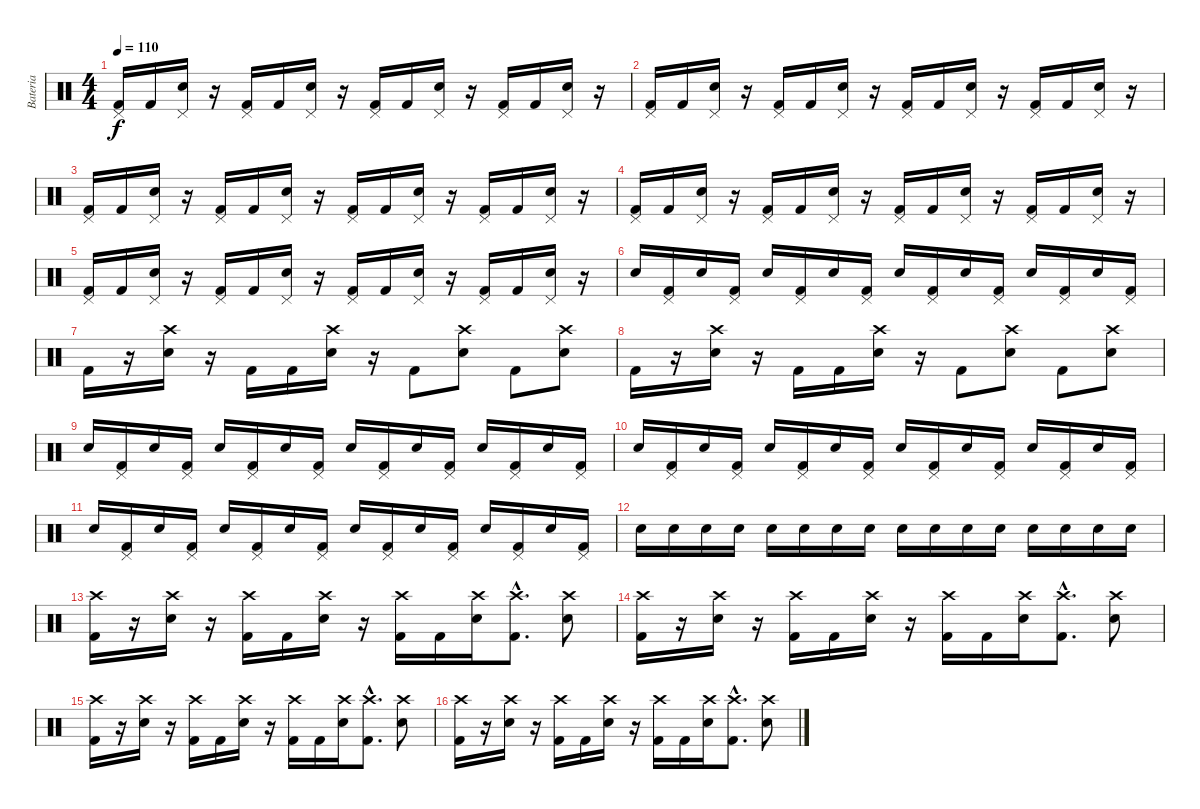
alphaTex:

\track ("Bateria" "Bateria") {instrument percussion}
\staff {score}
\articulation defaults
\ts (4 4)
\tempo 110
\clef neutral
\ks c
("Pedal Hi-Hat (hit)" "Kick (hit) 2").16{dy f} "Kick (hit) 2".16 ("Pedal Hi-Hat (hit)" "Electric Snare (hit)").16 r.16 ("Pedal Hi-Hat (hit)" "Kick (hit) 2").16 "Kick (hit) 2".16 ("Pedal Hi-Hat (hit)" "Electric Snare (hit)").16 r.16 ("Pedal Hi-Hat (hit)" "Kick (hit) 2").16 "Kick (hit) 2".16 ("Pedal Hi-Hat (hit)" "Electric Snare (hit)").16 r.16 ("Pedal Hi-Hat (hit)" "Kick (hit) 2").16 "Kick (hit) 2".16 ("Pedal Hi-Hat (hit)" "Electric Snare (hit)").16 r.16 |
("Pedal Hi-Hat (hit)" "Kick (hit) 2").16 "Kick (hit) 2".16 ("Pedal Hi-Hat (hit)" "Electric Snare (hit)").16 r.16 ("Pedal Hi-Hat (hit)" "Kick (hit) 2").16 "Kick (hit) 2".16 ("Pedal Hi-Hat (hit)" "Electric Snare (hit)").16 r.16 ("Pedal Hi-Hat (hit)" "Kick (hit) 2").16 "Kick (hit) 2".16 ("Pedal Hi-Hat (hit)" "Electric Snare (hit)").16 r.16 ("Pedal Hi-Hat (hit)" "Kick (hit) 2").16 "Kick (hit) 2".16 ("Pedal Hi-Hat (hit)" "Electric Snare (hit)").16 r.16 |
("Pedal Hi-Hat (hit)" "Kick (hit) 2").16 "Kick (hit) 2".16 ("Pedal Hi-Hat (hit)" "Electric Snare (hit)").16 r.16 ("Pedal Hi-Hat (hit)" "Kick (hit) 2").16 "Kick (hit) 2".16 ("Pedal Hi-Hat (hit)" "Electric Snare (hit)").16 r.16 ("Pedal Hi-Hat (hit)" "Kick (hit) 2").16 "Kick (hit) 2".16 ("Pedal Hi-Hat (hit)" "Electric Snare (hit)").16 r.16 ("Pedal Hi-Hat (hit)" "Kick (hit) 2").16 "Kick (hit) 2".16 ("Pedal Hi-Hat (hit)" "Electric Snare (hit)").16 r.16 |
("Pedal Hi-Hat (hit)" "Kick (hit) 2").16 "Kick (hit) 2".16 ("Pedal Hi-Hat (hit)" "Electric Snare (hit)").16 r.16 ("Pedal Hi-Hat (hit)" "Kick (hit) 2").16 "Kick (hit) 2".16 ("Pedal Hi-Hat (hit)" "Electric Snare (hit)").16 r.16 ("Pedal Hi-Hat (hit)" "Kick (hit) 2").16 "Kick (hit) 2".16 ("Pedal Hi-Hat (hit)" "Electric Snare (hit)").16 r.16 ("Pedal Hi-Hat (hit)" "Kick (hit) 2").16 "Kick (hit) 2".16 ("Pedal Hi-Hat (hit)" "Electric Snare (hit)").16 r.16 |
("Pedal Hi-Hat (hit)" "Kick (hit) 2").16 "Kick (hit) 2".16 ("Pedal Hi-Hat (hit)" "Electric Snare (hit)").16 r.16 ("Pedal Hi-Hat (hit)" "Kick (hit) 2").16 "Kick (hit) 2".16 ("Pedal Hi-Hat (hit)" "Electric Snare (hit)").16 r.16 ("Pedal Hi-Hat (hit)" "Kick (hit) 2").16 "Kick (hit) 2".16 ("Pedal Hi-Hat (hit)" "Electric Snare (hit)").16 r.16 ("Pedal Hi-Hat (hit)" "Kick (hit) 2").16 "Kick (hit) 2".16 ("Pedal Hi-Hat (hit)" "Electric Snare (hit)").16 r.16 |
"Electric Snare (hit)".16 ("Pedal Hi-Hat (hit)" "Kick (hit) 2").16 "Electric Snare (hit)".16 ("Pedal Hi-Hat (hit)" "Kick (hit) 2").16 "Electric Snare (hit)".16 ("Pedal Hi-Hat (hit)" "Kick (hit) 2").16 "Electric Snare (hit)".16 ("Pedal Hi-Hat (hit)" "Kick (hit) 2").16 "Electric Snare (hit)".16 ("Pedal Hi-Hat (hit)" "Kick (hit) 2").16 "Electric Snare (hit)".16 ("Pedal Hi-Hat (hit)" "Kick (hit) 2").16 "Electric Snare (hit)".16 ("Pedal Hi-Hat (hit)" "Kick (hit) 2").16 "Electric Snare (hit)".16 ("Pedal Hi-Hat (hit)" "Kick (hit) 2").16 |
"Kick (hit) 2".16 r.16 ("Crash high (hit)" "Electric Snare (hit)").16 r.16 "Kick (hit) 2".16 "Kick (hit) 2".16 ("Crash high (hit)" "Electric Snare (hit)").16 r.16 "Kick (hit) 2".8 ("Crash high (hit)" "Electric Snare (hit)").8 "Kick (hit) 2".8 ("Crash high (hit)" "Electric Snare (hit)").8 |
"Kick (hit) 2".16 r.16 ("Crash high (hit)" "Electric Snare (hit)").16 r.16 "Kick (hit) 2".16 "Kick (hit) 2".16 ("Crash high (hit)" "Electric Snare (hit)").16 r.16 "Kick (hit) 2".8 ("Crash high (hit)" "Electric Snare (hit)").8 "Kick (hit) 2".8 ("Crash high (hit)" "Electric Snare (hit)").8 |
"Electric Snare (hit)".16 ("Pedal Hi-Hat (hit)" "Kick (hit) 2").16 "Electric Snare (hit)".16 ("Pedal Hi-Hat (hit)" "Kick (hit) 2").16 "Electric Snare (hit)".16 ("Pedal Hi-Hat (hit)" "Kick (hit) 2").16 "Electric Snare (hit)".16 ("Pedal Hi-Hat (hit)" "Kick (hit) 2").16 "Electric Snare (hit)".16 ("Pedal Hi-Hat (hit)" "Kick (hit) 2").16 "Electric Snare (hit)".16 ("Pedal Hi-Hat (hit)" "Kick (hit) 2").16 "Electric Snare (hit)".16 ("Pedal Hi-Hat (hit)" "Kick (hit) 2").16 "Electric Snare (hit)".16 ("Pedal Hi-Hat (hit)" "Kick (hit) 2").16 |
"Electric Snare (hit)".16 ("Pedal Hi-Hat (hit)" "Kick (hit) 2").16 "Electric Snare (hit)".16 ("Pedal Hi-Hat (hit)" "Kick (hit) 2").16 "Electric Snare (hit)".16 ("Pedal Hi-Hat (hit)" "Kick (hit) 2").16 "Electric Snare (hit)".16 ("Pedal Hi-Hat (hit)" "Kick (hit) 2").16 "Electric Snare (hit)".16 ("Pedal Hi-Hat (hit)" "Kick (hit) 2").16 "Electric Snare (hit)".16 ("Pedal Hi-Hat (hit)" "Kick (hit) 2").16 "Electric Snare (hit)".16 ("Pedal Hi-Hat (hit)" "Kick (hit) 2").16 "Electric Snare (hit)".16 ("Pedal Hi-Hat (hit)" "Kick (hit) 2").16 |
"Electric Snare (hit)".16 ("Pedal Hi-Hat (hit)" "Kick (hit) 2").16 "Electric Snare (hit)".16 ("Pedal Hi-Hat (hit)" "Kick (hit) 2").16 "Electric Snare (hit)".16 ("Pedal Hi-Hat (hit)" "Kick (hit) 2").16 "Electric Snare (hit)".16 ("Pedal Hi-Hat (hit)" "Kick (hit) 2").16 "Electric Snare (hit)".16 ("Pedal Hi-Hat (hit)" "Kick (hit) 2").16 "Electric Snare (hit)".16 ("Pedal Hi-Hat (hit)" "Kick (hit) 2").16 "Electric Snare (hit)".16 ("Pedal Hi-Hat (hit)" "Kick (hit) 2").16 "Electric Snare (hit)".16 ("Pedal Hi-Hat (hit)" "Kick (hit) 2").16 |
"Electric Snare (hit)".16 "Electric Snare (hit)".16 "Electric Snare (hit)".16 "Electric Snare (hit)".16 "Electric Snare (hit)".16 "Electric Snare (hit)".16 "Electric Snare (hit)".16 "Electric Snare (hit)".16 "Electric Snare (hit)".16 "Electric Snare (hit)".16 "Electric Snare (hit)".16 "Electric Snare (hit)".16 "Electric Snare (hit)".16 "Electric Snare (hit)".16 "Electric Snare (hit)".16 "Electric Snare (hit)".16 |
("Crash high (hit)" "Kick (hit) 2").16 r.16 ("Crash high (hit)" "Electric Snare (hit)").16 r.16 ("Crash high (hit)" "Kick (hit) 2").16 "Kick (hit) 2".16 ("Crash high (hit)" "Electric Snare (hit)").16 r.16 ("Crash high (hit)" "Kick (hit) 2").16 "Kick (hit) 2".16 ("Crash high (hit)" "Electric Snare (hit)").16 ("Crash high (hit)"{hac} "Kick (hit) 2"{hac}).8{d} ("Crash high (hit)" "Electric Snare (hit)").8 |
("Crash high (hit)" "Kick (hit) 2").16 r.16 ("Crash high (hit)" "Electric Snare (hit)").16 r.16 ("Crash high (hit)" "Kick (hit) 2").16 "Kick (hit) 2".16 ("Crash high (hit)" "Electric Snare (hit)").16 r.16 ("Crash high (hit)" "Kick (hit) 2").16 "Kick (hit) 2".16 ("Crash high (hit)" "Electric Snare (hit)").16 ("Crash high (hit)"{hac} "Kick (hit) 2"{hac}).8{d} ("Crash high (hit)" "Electric Snare (hit)").8 |
("Crash high (hit)" "Kick (hit) 2").16 r.16 ("Crash high (hit)" "Electric Snare (hit)").16 r.16 ("Crash high (hit)" "Kick (hit) 2").16 "Kick (hit) 2".16 ("Crash high (hit)" "Electric Snare (hit)").16 r.16 ("Crash high (hit)" "Kick (hit) 2").16 "Kick (hit) 2".16 ("Crash high (hit)" "Electric Snare (hit)").16 ("Crash high (hit)"{hac} "Kick (hit) 2"{hac}).8{d} ("Crash high (hit)" "Electric Snare (hit)").8 |
("Crash high (hit)" "Kick (hit) 2").16 r.16 ("Crash high (hit)" "Electric Snare (hit)").16 r.16 ("Crash high (hit)" "Kick (hit) 2").16 "Kick (hit) 2".16 ("Crash high (hit)" "Electric Snare (hit)").16 r.16 ("Crash high (hit)" "Kick (hit) 2").16 "Kick (hit) 2".16 ("Crash high (hit)" "Electric Snare (hit)").16 ("Crash high (hit)"{hac} "Kick (hit) 2"{hac}).8{d} ("Crash high (hit)" "Electric Snare (hit)").8
